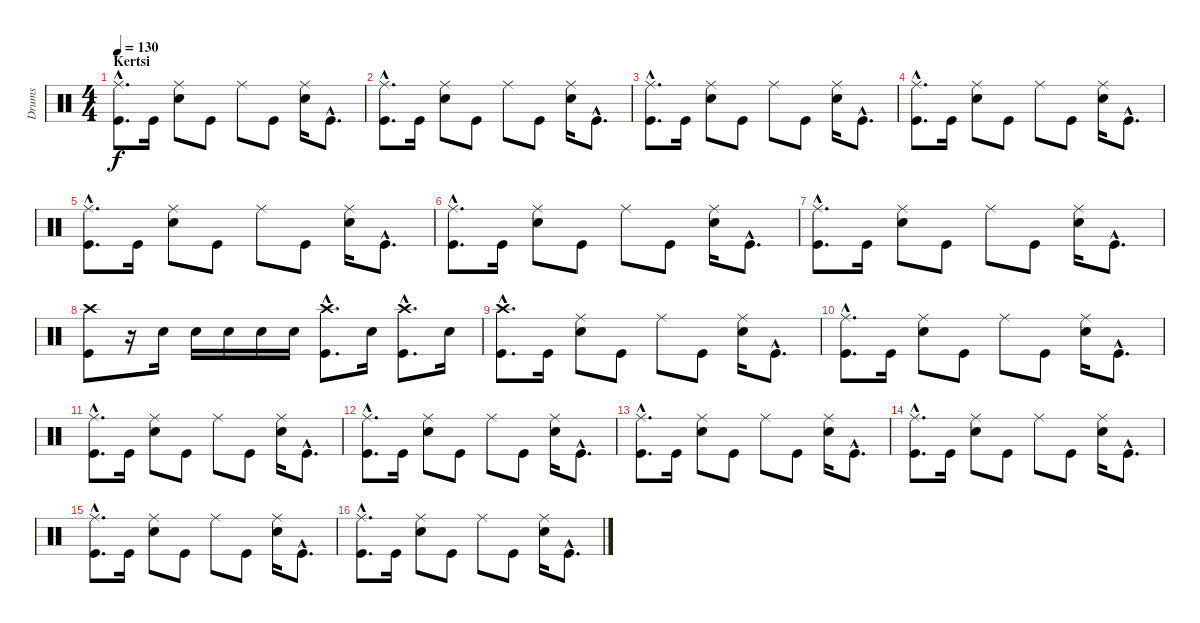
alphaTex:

\track ("Drums" "Drums") {instrument percussion}
\staff {score}
\articulation defaults
\ts (4 4)
\section ("" "Kertsi")
\tempo 130
\clef neutral
\ks c
("Ride (middle)"{hac} "Kick (hit)"{hac}).8{d dy f} "Kick (hit)".16 ("Ride (middle)" "Electric Snare (hit)").8 "Kick (hit)".8 "Ride (middle)".8 "Kick (hit)".8 ("Ride (middle)" "Electric Snare (hit)").16 "Kick (hit)"{hac}.8{d} |
("Ride (middle)"{hac} "Kick (hit)"{hac}).8{d} "Kick (hit)".16 ("Ride (middle)" "Electric Snare (hit)").8 "Kick (hit)".8 "Ride (middle)".8 "Kick (hit)".8 ("Ride (middle)" "Electric Snare (hit)").16 "Kick (hit)"{hac}.8{d} |
("Ride (middle)"{hac} "Kick (hit)"{hac}).8{d} "Kick (hit)".16 ("Ride (middle)" "Electric Snare (hit)").8 "Kick (hit)".8 "Ride (middle)".8 "Kick (hit)".8 ("Ride (middle)" "Electric Snare (hit)").16 "Kick (hit)"{hac}.8{d} |
("Ride (middle)"{hac} "Kick (hit)"{hac}).8{d} "Kick (hit)".16 ("Ride (middle)" "Electric Snare (hit)").8 "Kick (hit)".8 "Ride (middle)".8 "Kick (hit)".8 ("Ride (middle)" "Electric Snare (hit)").16 "Kick (hit)"{hac}.8{d} |
("Ride (middle)"{hac} "Kick (hit)"{hac}).8{d} "Kick (hit)".16 ("Ride (middle)" "Electric Snare (hit)").8 "Kick (hit)".8 "Ride (middle)".8 "Kick (hit)".8 ("Ride (middle)" "Electric Snare (hit)").16 "Kick (hit)"{hac}.8{d} |
("Ride (middle)"{hac} "Kick (hit)"{hac}).8{d} "Kick (hit)".16 ("Ride (middle)" "Electric Snare (hit)").8 "Kick (hit)".8 "Ride (middle)".8 "Kick (hit)".8 ("Ride (middle)" "Electric Snare (hit)").16 "Kick (hit)"{hac}.8{d} |
("Ride (middle)"{hac} "Kick (hit)"{hac}).8{d} "Kick (hit)".16 ("Ride (middle)" "Electric Snare (hit)").8 "Kick (hit)".8 "Ride (middle)".8 "Kick (hit)".8 ("Ride (middle)" "Electric Snare (hit)").16 "Kick (hit)"{hac}.8{d} |
("Crash high (hit)" "Kick (hit)").8 r.16 "Electric Snare (hit)".16 "Electric Snare (hit)".16 "Electric Snare (hit)".16 "Electric Snare (hit)".16 "Electric Snare (hit)".16 ("Crash high (hit)"{hac} "Kick (hit)"{hac}).8{d} "Electric Snare (hit)".16 ("Crash high (hit)"{hac} "Kick (hit)"{hac}).8{d} "Electric Snare (hit)".16 |
("Crash high (hit)"{hac} "Kick (hit)"{hac}).8{d} "Kick (hit)".16 ("Ride (middle)" "Electric Snare (hit)").8 "Kick (hit)".8 "Ride (middle)".8 "Kick (hit)".8 ("Ride (middle)" "Electric Snare (hit)").16 "Kick (hit)"{hac}.8{d} |
("Ride (middle)"{hac} "Kick (hit)"{hac}).8{d} "Kick (hit)".16 ("Ride (middle)" "Electric Snare (hit)").8 "Kick (hit)".8 "Ride (middle)".8 "Kick (hit)".8 ("Ride (middle)" "Electric Snare (hit)").16 "Kick (hit)"{hac}.8{d} |
("Ride (middle)"{hac} "Kick (hit)"{hac}).8{d} "Kick (hit)".16 ("Ride (middle)" "Electric Snare (hit)").8 "Kick (hit)".8 "Ride (middle)".8 "Kick (hit)".8 ("Ride (middle)" "Electric Snare (hit)").16 "Kick (hit)"{hac}.8{d} |
("Ride (middle)"{hac} "Kick (hit)"{hac}).8{d} "Kick (hit)".16 ("Ride (middle)" "Electric Snare (hit)").8 "Kick (hit)".8 "Ride (middle)".8 "Kick (hit)".8 ("Ride (middle)" "Electric Snare (hit)").16 "Kick (hit)"{hac}.8{d} |
("Ride (middle)"{hac} "Kick (hit)"{hac}).8{d} "Kick (hit)".16 ("Ride (middle)" "Electric Snare (hit)").8 "Kick (hit)".8 "Ride (middle)".8 "Kick (hit)".8 ("Ride (middle)" "Electric Snare (hit)").16 "Kick (hit)"{hac}.8{d} |
("Ride (middle)"{hac} "Kick (hit)"{hac}).8{d} "Kick (hit)".16 ("Ride (middle)" "Electric Snare (hit)").8 "Kick (hit)".8 "Ride (middle)".8 "Kick (hit)".8 ("Ride (middle)" "Electric Snare (hit)").16 "Kick (hit)"{hac}.8{d} |
("Ride (middle)"{hac} "Kick (hit)"{hac}).8{d} "Kick (hit)".16 ("Ride (middle)" "Electric Snare (hit)").8 "Kick (hit)".8 "Ride (middle)".8 "Kick (hit)".8 ("Ride (middle)" "Electric Snare (hit)").16 "Kick (hit)"{hac}.8{d} |
("Ride (middle)"{hac} "Kick (hit)"{hac}).8{d} "Kick (hit)".16 ("Ride (middle)" "Electric Snare (hit)").8 "Kick (hit)".8 "Ride (middle)".8 "Kick (hit)".8 ("Ride (middle)" "Electric Snare (hit)").16 "Kick (hit)"{hac}.8{d}
